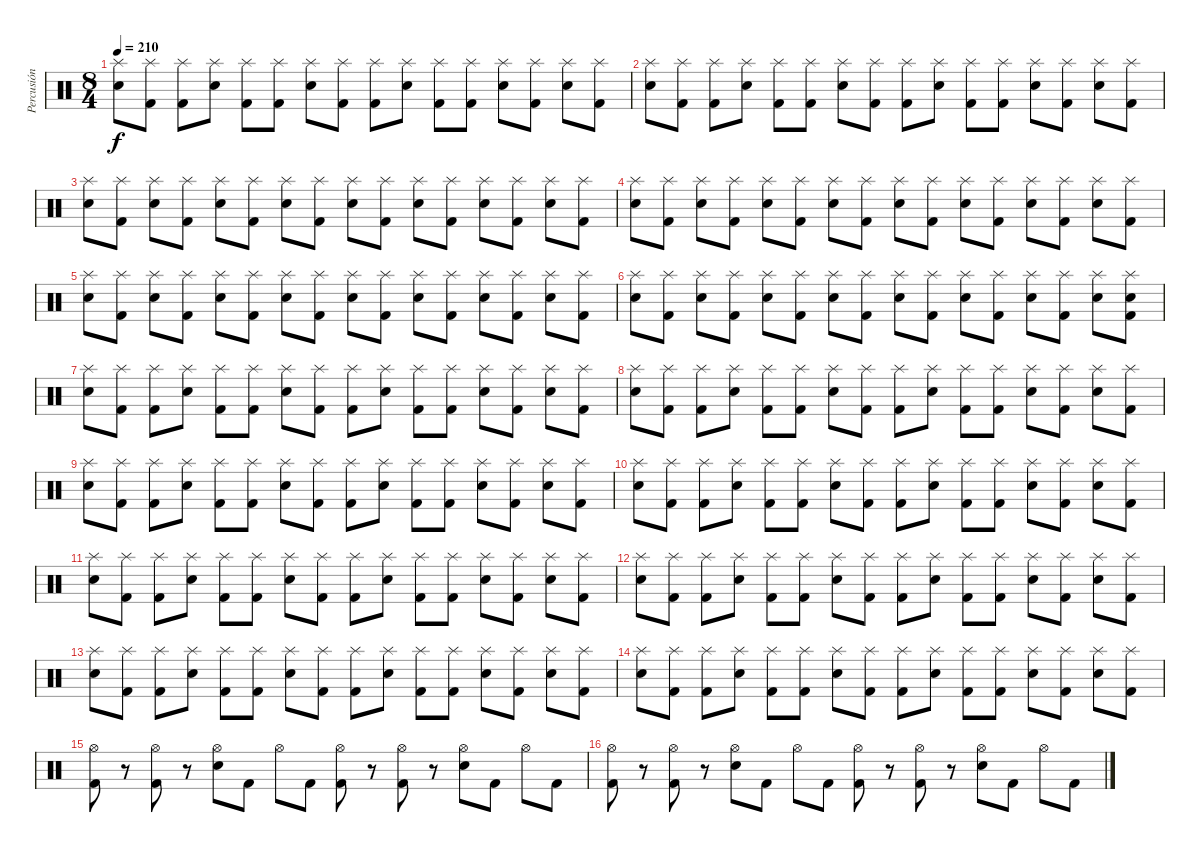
\track ("Percusión" "Percusión") {instrument percussion}
\staff {score}
\articulation defaults
\ts (8 4)
\tempo 210
\clef neutral
\ks c
("Splash (hit)" "Electric Snare (hit)").8{dy f} ("Splash (hit)" "Kick (hit) 2").8 ("Splash (hit)" "Kick (hit) 2").8 ("Splash (hit)" "Electric Snare (hit)").8 ("Splash (hit)" "Kick (hit) 2").8 ("Splash (hit)" "Kick (hit) 2").8 ("Splash (hit)" "Electric Snare (hit)").8 ("Splash (hit)" "Kick (hit) 2").8 ("Splash (hit)" "Kick (hit) 2").8 ("Splash (hit)" "Electric Snare (hit)").8 ("Splash (hit)" "Kick (hit) 2").8 ("Splash (hit)" "Kick (hit) 2").8 ("Splash (hit)" "Electric Snare (hit)").8 ("Splash (hit)" "Kick (hit) 2").8 ("Splash (hit)" "Electric Snare (hit)").8 ("Splash (hit)" "Kick (hit) 2").8 |
("Splash (hit)" "Electric Snare (hit)").8 ("Splash (hit)" "Kick (hit) 2").8 ("Splash (hit)" "Kick (hit) 2").8 ("Splash (hit)" "Electric Snare (hit)").8 ("Splash (hit)" "Kick (hit) 2").8 ("Splash (hit)" "Kick (hit) 2").8 ("Splash (hit)" "Electric Snare (hit)").8 ("Splash (hit)" "Kick (hit) 2").8 ("Splash (hit)" "Kick (hit) 2").8 ("Splash (hit)" "Electric Snare (hit)").8 ("Splash (hit)" "Kick (hit) 2").8 ("Splash (hit)" "Kick (hit) 2").8 ("Splash (hit)" "Electric Snare (hit)").8 ("Splash (hit)" "Kick (hit) 2").8 ("Splash (hit)" "Electric Snare (hit)").8 ("Splash (hit)" "Kick (hit) 2").8 |
("Splash (hit)" "Electric Snare (hit)").8 ("Splash (hit)" "Kick (hit) 2").8 ("Splash (hit)" "Electric Snare (hit)").8 ("Splash (hit)" "Kick (hit) 2").8 ("Splash (hit)" "Electric Snare (hit)").8 ("Splash (hit)" "Kick (hit) 2").8 ("Splash (hit)" "Electric Snare (hit)").8 ("Splash (hit)" "Kick (hit) 2").8 ("Splash (hit)" "Electric Snare (hit)").8 ("Splash (hit)" "Kick (hit) 2").8 ("Splash (hit)" "Electric Snare (hit)").8 ("Splash (hit)" "Kick (hit) 2").8 ("Splash (hit)" "Electric Snare (hit)").8 ("Splash (hit)" "Kick (hit) 2").8 ("Splash (hit)" "Electric Snare (hit)").8 ("Splash (hit)" "Kick (hit) 2").8 |
("Splash (hit)" "Electric Snare (hit)").8 ("Splash (hit)" "Kick (hit) 2").8 ("Splash (hit)" "Electric Snare (hit)").8 ("Splash (hit)" "Kick (hit) 2").8 ("Splash (hit)" "Electric Snare (hit)").8 ("Splash (hit)" "Kick (hit) 2").8 ("Splash (hit)" "Electric Snare (hit)").8 ("Splash (hit)" "Kick (hit) 2").8 ("Splash (hit)" "Electric Snare (hit)").8 ("Splash (hit)" "Kick (hit) 2").8 ("Splash (hit)" "Electric Snare (hit)").8 ("Splash (hit)" "Kick (hit) 2").8 ("Splash (hit)" "Electric Snare (hit)").8 ("Splash (hit)" "Kick (hit) 2").8 ("Splash (hit)" "Electric Snare (hit)").8 ("Splash (hit)" "Kick (hit) 2").8 |
("Splash (hit)" "Electric Snare (hit)").8 ("Splash (hit)" "Kick (hit) 2").8 ("Splash (hit)" "Electric Snare (hit)").8 ("Splash (hit)" "Kick (hit) 2").8 ("Splash (hit)" "Electric Snare (hit)").8 ("Splash (hit)" "Kick (hit) 2").8 ("Splash (hit)" "Electric Snare (hit)").8 ("Splash (hit)" "Kick (hit) 2").8 ("Splash (hit)" "Electric Snare (hit)").8 ("Splash (hit)" "Kick (hit) 2").8 ("Splash (hit)" "Electric Snare (hit)").8 ("Splash (hit)" "Kick (hit) 2").8 ("Splash (hit)" "Electric Snare (hit)").8 ("Splash (hit)" "Kick (hit) 2").8 ("Splash (hit)" "Electric Snare (hit)").8 ("Splash (hit)" "Kick (hit) 2").8 |
("Splash (hit)" "Electric Snare (hit)").8 ("Splash (hit)" "Kick (hit) 2").8 ("Splash (hit)" "Electric Snare (hit)").8 ("Splash (hit)" "Kick (hit) 2").8 ("Splash (hit)" "Electric Snare (hit)").8 ("Splash (hit)" "Kick (hit) 2").8 ("Splash (hit)" "Electric Snare (hit)").8 ("Splash (hit)" "Kick (hit) 2").8 ("Splash (hit)" "Electric Snare (hit)").8 ("Splash (hit)" "Kick (hit) 2").8 ("Splash (hit)" "Electric Snare (hit)").8 ("Splash (hit)" "Kick (hit) 2").8 ("Splash (hit)" "Electric Snare (hit)").8 ("Splash (hit)" "Kick (hit) 2").8 ("Splash (hit)" "Electric Snare (hit)").8 ("Splash (hit)" "Electric Snare (hit)" "Kick (hit) 2").8 |
("Splash (hit)" "Electric Snare (hit)").8 ("Splash (hit)" "Kick (hit) 2").8 ("Splash (hit)" "Kick (hit) 2").8 ("Splash (hit)" "Electric Snare (hit)").8 ("Splash (hit)" "Kick (hit) 2").8 ("Splash (hit)" "Kick (hit) 2").8 ("Splash (hit)" "Electric Snare (hit)").8 ("Splash (hit)" "Kick (hit) 2").8 ("Splash (hit)" "Kick (hit) 2").8 ("Splash (hit)" "Electric Snare (hit)").8 ("Splash (hit)" "Kick (hit) 2").8 ("Splash (hit)" "Kick (hit) 2").8 ("Splash (hit)" "Electric Snare (hit)").8 ("Splash (hit)" "Kick (hit) 2").8 ("Splash (hit)" "Electric Snare (hit)").8 ("Splash (hit)" "Kick (hit) 2").8 |
("Splash (hit)" "Electric Snare (hit)").8 ("Splash (hit)" "Kick (hit) 2").8 ("Splash (hit)" "Kick (hit) 2").8 ("Splash (hit)" "Electric Snare (hit)").8 ("Splash (hit)" "Kick (hit) 2").8 ("Splash (hit)" "Kick (hit) 2").8 ("Splash (hit)" "Electric Snare (hit)").8 ("Splash (hit)" "Kick (hit) 2").8 ("Splash (hit)" "Kick (hit) 2").8 ("Splash (hit)" "Electric Snare (hit)").8 ("Splash (hit)" "Kick (hit) 2").8 ("Splash (hit)" "Kick (hit) 2").8 ("Splash (hit)" "Electric Snare (hit)").8 ("Splash (hit)" "Kick (hit) 2").8 ("Splash (hit)" "Electric Snare (hit)").8 ("Splash (hit)" "Kick (hit) 2").8 |
("Splash (hit)" "Electric Snare (hit)").8 ("Splash (hit)" "Kick (hit) 2").8 ("Splash (hit)" "Kick (hit) 2").8 ("Splash (hit)" "Electric Snare (hit)").8 ("Splash (hit)" "Kick (hit) 2").8 ("Splash (hit)" "Kick (hit) 2").8 ("Splash (hit)" "Electric Snare (hit)").8 ("Splash (hit)" "Kick (hit) 2").8 ("Splash (hit)" "Kick (hit) 2").8 ("Splash (hit)" "Electric Snare (hit)").8 ("Splash (hit)" "Kick (hit) 2").8 ("Splash (hit)" "Kick (hit) 2").8 ("Splash (hit)" "Electric Snare (hit)").8 ("Splash (hit)" "Kick (hit) 2").8 ("Splash (hit)" "Electric Snare (hit)").8 ("Splash (hit)" "Kick (hit) 2").8 |
("Splash (hit)" "Electric Snare (hit)").8 ("Splash (hit)" "Kick (hit) 2").8 ("Splash (hit)" "Kick (hit) 2").8 ("Splash (hit)" "Electric Snare (hit)").8 ("Splash (hit)" "Kick (hit) 2").8 ("Splash (hit)" "Kick (hit) 2").8 ("Splash (hit)" "Electric Snare (hit)").8 ("Splash (hit)" "Kick (hit) 2").8 ("Splash (hit)" "Kick (hit) 2").8 ("Splash (hit)" "Electric Snare (hit)").8 ("Splash (hit)" "Kick (hit) 2").8 ("Splash (hit)" "Kick (hit) 2").8 ("Splash (hit)" "Electric Snare (hit)").8 ("Splash (hit)" "Kick (hit) 2").8 ("Splash (hit)" "Electric Snare (hit)").8 ("Splash (hit)" "Kick (hit) 2").8 |
("Splash (hit)" "Electric Snare (hit)").8 ("Splash (hit)" "Kick (hit) 2").8 ("Splash (hit)" "Kick (hit) 2").8 ("Splash (hit)" "Electric Snare (hit)").8 ("Splash (hit)" "Kick (hit) 2").8 ("Splash (hit)" "Kick (hit) 2").8 ("Splash (hit)" "Electric Snare (hit)").8 ("Splash (hit)" "Kick (hit) 2").8 ("Splash (hit)" "Kick (hit) 2").8 ("Splash (hit)" "Electric Snare (hit)").8 ("Splash (hit)" "Kick (hit) 2").8 ("Splash (hit)" "Kick (hit) 2").8 ("Splash (hit)" "Electric Snare (hit)").8 ("Splash (hit)" "Kick (hit) 2").8 ("Splash (hit)" "Electric Snare (hit)").8 ("Splash (hit)" "Kick (hit) 2").8 |
("Splash (hit)" "Electric Snare (hit)").8 ("Splash (hit)" "Kick (hit) 2").8 ("Splash (hit)" "Kick (hit) 2").8 ("Splash (hit)" "Electric Snare (hit)").8 ("Splash (hit)" "Kick (hit) 2").8 ("Splash (hit)" "Kick (hit) 2").8 ("Splash (hit)" "Electric Snare (hit)").8 ("Splash (hit)" "Kick (hit) 2").8 ("Splash (hit)" "Kick (hit) 2").8 ("Splash (hit)" "Electric Snare (hit)").8 ("Splash (hit)" "Kick (hit) 2").8 ("Splash (hit)" "Kick (hit) 2").8 ("Splash (hit)" "Electric Snare (hit)").8 ("Splash (hit)" "Kick (hit) 2").8 ("Splash (hit)" "Electric Snare (hit)").8 ("Splash (hit)" "Kick (hit) 2").8 |
("Splash (hit)" "Electric Snare (hit)").8 ("Splash (hit)" "Kick (hit) 2").8 ("Splash (hit)" "Kick (hit) 2").8 ("Splash (hit)" "Electric Snare (hit)").8 ("Splash (hit)" "Kick (hit) 2").8 ("Splash (hit)" "Kick (hit) 2").8 ("Splash (hit)" "Electric Snare (hit)").8 ("Splash (hit)" "Kick (hit) 2").8 ("Splash (hit)" "Kick (hit) 2").8 ("Splash (hit)" "Electric Snare (hit)").8 ("Splash (hit)" "Kick (hit) 2").8 ("Splash (hit)" "Kick (hit) 2").8 ("Splash (hit)" "Electric Snare (hit)").8 ("Splash (hit)" "Kick (hit) 2").8 ("Splash (hit)" "Electric Snare (hit)").8 ("Splash (hit)" "Kick (hit) 2").8 |
("Splash (hit)" "Electric Snare (hit)").8 ("Splash (hit)" "Kick (hit) 2").8 ("Splash (hit)" "Kick (hit) 2").8 ("Splash (hit)" "Electric Snare (hit)").8 ("Splash (hit)" "Kick (hit) 2").8 ("Splash (hit)" "Kick (hit) 2").8 ("Splash (hit)" "Electric Snare (hit)").8 ("Splash (hit)" "Kick (hit) 2").8 ("Splash (hit)" "Kick (hit) 2").8 ("Splash (hit)" "Electric Snare (hit)").8 ("Splash (hit)" "Kick (hit) 2").8 ("Splash (hit)" "Kick (hit) 2").8 ("Splash (hit)" "Electric Snare (hit)").8 ("Splash (hit)" "Kick (hit) 2").8 ("Splash (hit)" "Electric Snare (hit)").8 ("Splash (hit)" "Kick (hit) 2").8 |
("Hi-Hat (open)" "Kick (hit) 2").8 r.8 ("Hi-Hat (open)" "Kick (hit) 2").8 r.8 ("Hi-Hat (open)" "Electric Snare (hit)").8 "Kick (hit) 2".8 "Hi-Hat (open)".8 "Kick (hit) 2".8 ("Hi-Hat (open)" "Kick (hit) 2").8 r.8 ("Hi-Hat (open)" "Kick (hit) 2").8 r.8 ("Hi-Hat (open)" "Electric Snare (hit)").8 "Kick (hit) 2".8 "Hi-Hat (open)".8 "Kick (hit) 2".8 |
("Hi-Hat (open)" "Kick (hit) 2").8 r.8 ("Hi-Hat (open)" "Kick (hit) 2").8 r.8 ("Hi-Hat (open)" "Electric Snare (hit)").8 "Kick (hit) 2".8 "Hi-Hat (open)".8 "Kick (hit) 2".8 ("Hi-Hat (open)" "Kick (hit) 2").8 r.8 ("Hi-Hat (open)" "Kick (hit) 2").8 r.8 ("Hi-Hat (open)" "Electric Snare (hit)").8 "Kick (hit) 2".8 "Hi-Hat (open)".8 "Kick (hit) 2".8
